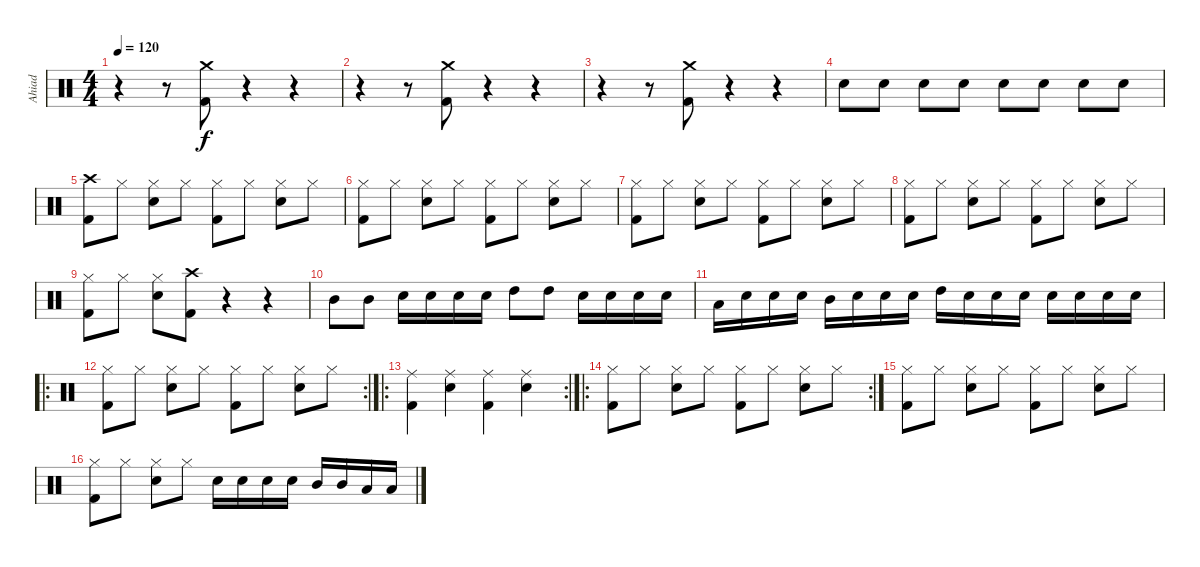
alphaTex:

\track ("Ahiad" "Ahiad") {instrument percussion}
\staff {score}
\articulation defaults
\ts (4 4)
\tempo 120
\clef neutral
\ks c
r.4{dy f} r.8 ("Crash medium (hit)" "Kick (hit) 2").8 r.4 r.4 |
r.4 r.8 ("Crash medium (hit)" "Kick (hit) 2").8 r.4 r.4 |
r.4 r.8 ("Crash medium (hit)" "Kick (hit) 2").8 r.4 r.4 |
"Snare (hit) 2".8 "Snare (hit) 2".8 "Snare (hit) 2".8 "Snare (hit) 2".8 "Snare (hit) 2".8 "Snare (hit) 2".8 "Snare (hit) 2".8 "Snare (hit) 2".8 |
("Crash high (hit)" "Kick (hit) 2").8 "Hi-Hat (closed)".8 ("Hi-Hat (closed)" "Snare (hit) 2").8 "Hi-Hat (closed)".8 ("Hi-Hat (closed)" "Kick (hit) 2").8 "Hi-Hat (closed)".8 ("Hi-Hat (closed)" "Snare (hit) 2").8 "Hi-Hat (closed)".8 |
("Hi-Hat (closed)" "Kick (hit) 2").8 "Hi-Hat (closed)".8 ("Hi-Hat (closed)" "Snare (hit) 2").8 "Hi-Hat (closed)".8 ("Hi-Hat (closed)" "Kick (hit) 2").8 "Hi-Hat (closed)".8 ("Hi-Hat (closed)" "Snare (hit) 2").8 "Hi-Hat (closed)".8 |
("Hi-Hat (closed)" "Kick (hit) 2").8 "Hi-Hat (closed)".8 ("Hi-Hat (closed)" "Snare (hit) 2").8 "Hi-Hat (closed)".8 ("Hi-Hat (closed)" "Kick (hit) 2").8 "Hi-Hat (closed)".8 ("Hi-Hat (closed)" "Snare (hit) 2").8 "Hi-Hat (closed)".8 |
("Hi-Hat (closed)" "Kick (hit) 2").8 "Hi-Hat (closed)".8 ("Hi-Hat (closed)" "Snare (hit) 2").8 "Hi-Hat (closed)".8 ("Hi-Hat (closed)" "Kick (hit) 2").8 "Hi-Hat (closed)".8 ("Hi-Hat (closed)" "Snare (hit) 2").8 "Hi-Hat (closed)".8 |
("Hi-Hat (closed)" "Kick (hit) 2").8 "Hi-Hat (closed)".8 ("Hi-Hat (closed)" "Snare (hit) 2").8 ("Crash high (hit)" "Kick (hit) 2").8 r.4 r.4 |
"Mid Tom (hit)".8 "Mid Tom (hit)".8 "Snare (hit) 2".16 "Snare (hit) 2".16 "Snare (hit) 2".16 "Snare (hit) 2".16 "High Tom (hit)".8 "High Tom (hit)".8 "Snare (hit) 2".16 "Snare (hit) 2".16 "Snare (hit) 2".16 "Snare (hit) 2".16 |
"Low Tom (hit)".16 "Snare (hit) 2".16 "Snare (hit) 2".16 "Snare (hit) 2".16 "Mid Tom (hit)".16 "Snare (hit) 2".16 "Snare (hit) 2".16 "Snare (hit) 2".16 "High Tom (hit)".16 "Snare (hit) 2".16 "Snare (hit) 2".16 "Snare (hit) 2".16 "Snare (hit) 2".16 "Snare (hit) 2".16 "Snare (hit) 2".16 "Snare (hit) 2".16 |
\ro
\rc 2
("Hi-Hat (closed)" "Kick (hit) 2").8 "Hi-Hat (closed)".8 ("Hi-Hat (closed)" "Snare (hit) 2").8 "Hi-Hat (closed)".8 ("Hi-Hat (closed)" "Kick (hit) 2").8 "Hi-Hat (closed)".8 ("Hi-Hat (closed)" "Snare (hit) 2").8 "Hi-Hat (closed)".8 |
\ro
\rc 2
("Ride (middle)" "Kick (hit) 2").4 ("Ride (middle)" "Snare (hit) 2").4 ("Ride (middle)" "Kick (hit) 2").4 ("Ride (middle)" "Snare (hit) 2").4 |
\ro
\rc 2
("Hi-Hat (closed)" "Kick (hit) 2").8 "Hi-Hat (closed)".8 ("Hi-Hat (closed)" "Snare (hit) 2").8 "Hi-Hat (closed)".8 ("Hi-Hat (closed)" "Kick (hit) 2").8 "Hi-Hat (closed)".8 ("Hi-Hat (closed)" "Snare (hit) 2").8 "Hi-Hat (closed)".8 |
("Hi-Hat (closed)" "Kick (hit) 2").8 "Hi-Hat (closed)".8 ("Hi-Hat (closed)" "Snare (hit) 2").8 "Hi-Hat (closed)".8 ("Hi-Hat (closed)" "Kick (hit) 2").8 "Hi-Hat (closed)".8 ("Hi-Hat (closed)" "Snare (hit) 2").8 "Hi-Hat (closed)".8 |
("Hi-Hat (closed)" "Kick (hit) 2").8 "Hi-Hat (closed)".8 ("Hi-Hat (closed)" "Snare (hit) 2").8 "Hi-Hat (closed)".8 "Snare (hit) 2".16 "Snare (hit) 2".16 "Snare (hit) 2".16 "Snare (hit) 2".16 "Mid Tom (hit)".16 "Mid Tom (hit)".16 "Low Tom (hit)".16 "Low Tom (hit)".16
